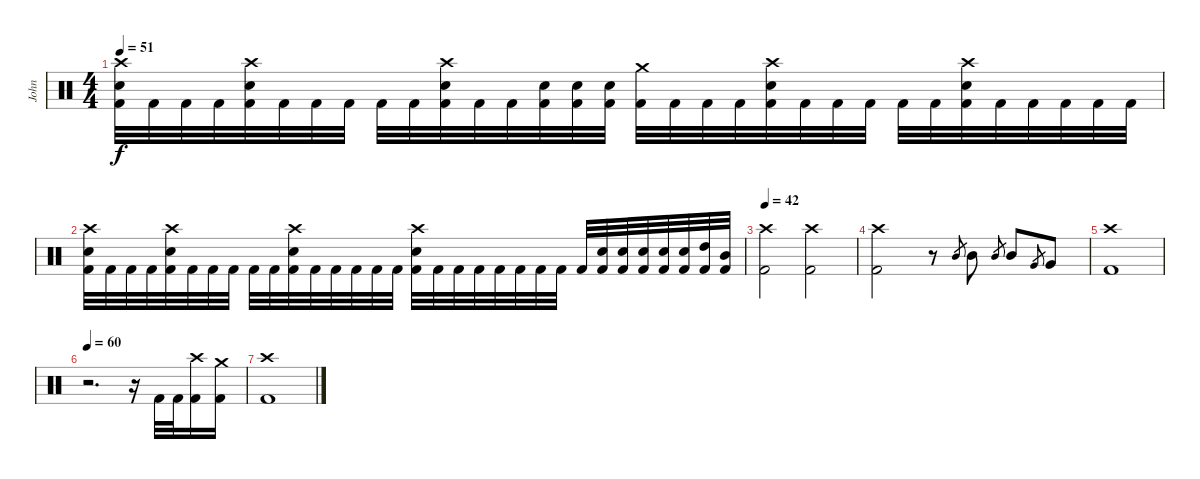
\track ("John" "John") {instrument percussion}
\staff {score}
\articulation defaults
\ts (4 4)
\tempo 51
\clef neutral
\ks c
("Crash high (hit)" "Snare (hit) 2" "Kick (hit) 2").32{dy f} "Kick (hit) 2".32 "Kick (hit) 2".32 "Kick (hit) 2".32 ("Crash high (hit)" "Snare (hit) 2" "Kick (hit) 2").32 "Kick (hit) 2".32 "Kick (hit) 2".32 "Kick (hit) 2".32 "Kick (hit) 2".32 "Kick (hit) 2".32 ("Crash high (hit)" "Snare (hit) 2" "Kick (hit) 2").32 "Kick (hit) 2".32 "Kick (hit) 2".32 ("Snare (hit) 2" "Kick (hit) 2").32 ("Snare (hit) 2" "Kick (hit) 2").32 ("Snare (hit) 2" "Kick (hit) 2").32 ("Crash medium (hit)" "Kick (hit) 2").32 "Kick (hit) 2".32 "Kick (hit) 2".32 "Kick (hit) 2".32 ("Crash high (hit)" "Snare (hit) 2" "Kick (hit) 2").32 "Kick (hit) 2".32 "Kick (hit) 2".32 "Kick (hit) 2".32 "Kick (hit) 2".32 "Kick (hit) 2".32 ("Crash high (hit)" "Snare (hit) 2" "Kick (hit) 2").32 "Kick (hit) 2".32 "Kick (hit) 2".32 "Kick (hit) 2".32 "Kick (hit) 2".32 "Kick (hit) 2".32 |
("Crash high (hit)" "Snare (hit) 2" "Kick (hit) 2").32 "Kick (hit) 2".32 "Kick (hit) 2".32 "Kick (hit) 2".32 ("Crash high (hit)" "Snare (hit) 2" "Kick (hit) 2").32 "Kick (hit) 2".32 "Kick (hit) 2".32 "Kick (hit) 2".32 "Kick (hit) 2".32 "Kick (hit) 2".32 ("Crash high (hit)" "Snare (hit) 2" "Kick (hit) 2").32 "Kick (hit) 2".32 "Kick (hit) 2".32 "Kick (hit) 2".32 "Kick (hit) 2".32 "Kick (hit) 2".32 ("Crash high (hit)" "Snare (hit) 2" "Kick (hit) 2").32 "Kick (hit) 2".32 "Kick (hit) 2".32 "Kick (hit) 2".32 "Kick (hit) 2".32 "Kick (hit) 2".32 "Kick (hit) 2".32 "Kick (hit) 2".32 "Kick (hit) 2".32 ("Snare (hit) 2" "Kick (hit) 2").32 ("Snare (hit) 2" "Kick (hit) 2").32 ("Snare (hit) 2" "Kick (hit) 2").32 ("Snare (hit) 2" "Kick (hit) 2").32 ("Snare (hit) 2" "Kick (hit) 2").32 ("High Tom (hit)" "Kick (hit) 2").32 ("Mid Tom (hit)" "Kick (hit) 2").32 |
\tempo 42
("Crash high (hit)" "Kick (hit) 2").2 ("Crash high (hit)" "Kick (hit) 2").2 |
("Crash high (hit)" "Kick (hit) 2").2 r.8 "Mid Tom (hit)".8{gr} "Mid Tom (hit)".8 "Mid Tom (hit)".8{gr} "Mid Tom (hit)".8 "Very Low Tom (hit)".8{gr} "Very Low Tom (hit)".8 |
("Crash high (hit)" "Kick (hit) 2").1 |
\tempo 60
r.2{d} r.16 "Kick (hit) 2".32 "Kick (hit) 2".32 ("Crash high (hit)" "Kick (hit) 2").16 ("Crash medium (hit)" "Kick (hit) 2").16 |
("Crash high (hit)" "Kick (hit) 2").1
